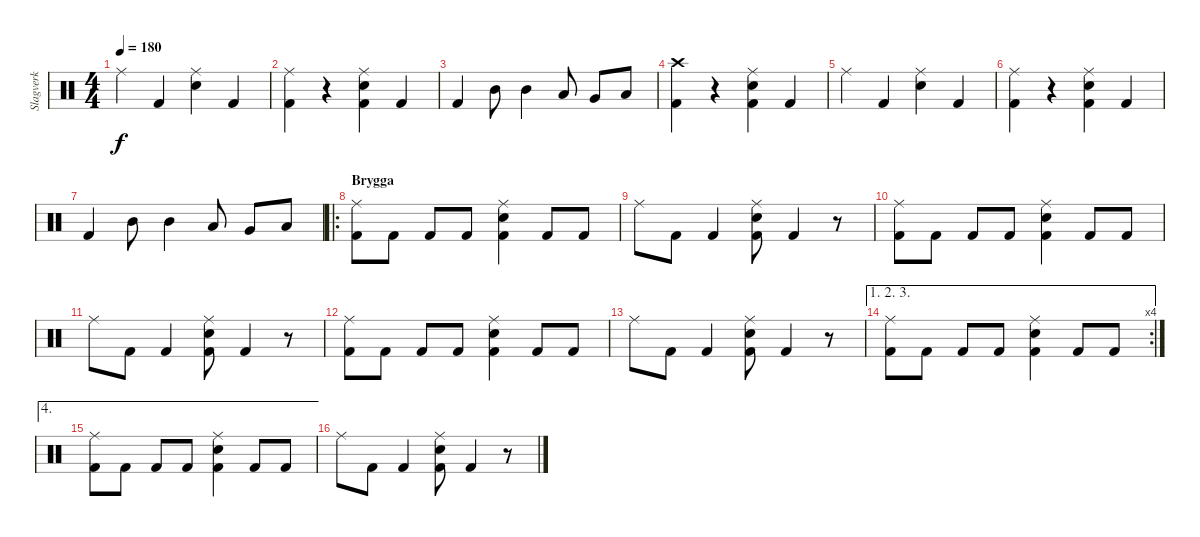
\track ("Slagverk" "Slagverk") {instrument percussion}
\staff {score}
\articulation defaults
\ts (4 4)
\tempo 180
\clef neutral
\ks c "Ride (middle)".4{dy f} "Kick (hit) 2".4
("Snare (hit) 2" "Ride (middle)").4 "Kick (hit) 2".4 |
("Kick (hit) 2" "Ride (middle)").4 r.4 ("Kick (hit) 2" "Snare (hit) 2" "Ride (middle)").4 "Kick (hit) 2".4 |
"Kick (hit) 2".4 "Mid Tom (hit)".8 "Mid Tom (hit)".4 "Low Tom (hit)".8 "Very Low Tom (hit)".8 "Low Floor Tom (hit)".8 |
("Kick (hit) 2" "Crash high (hit)").4 r.4 ("Kick (hit) 2" "Snare (hit) 2" "Ride (middle)").4 "Kick (hit) 2".4 |
"Ride (middle)".4 "Kick (hit) 2".4 ("Snare (hit) 2" "Ride (middle)").4 "Kick (hit) 2".4 |
("Kick (hit) 2" "Ride (middle)").4 r.4 ("Kick (hit) 2" "Snare (hit) 2" "Ride (middle)").4 "Kick (hit) 2".4 |
"Kick (hit) 2".4 "Mid Tom (hit)".8 "Mid Tom (hit)".4 "Low Tom (hit)".8 "Very Low Tom (hit)".8 "Low Floor Tom (hit)".8 |
\ro
\section ("" "Brygga")
("Kick (hit) 2" "Ride (middle)").8 "Kick (hit) 2".8 "Kick (hit) 2".8 "Kick (hit) 2".8 ("Kick (hit) 2" "Snare (hit) 2" "Ride (middle)").4 "Kick (hit) 2".8 "Kick (hit) 2".8 |
"Ride (middle)".8 "Kick (hit) 2".8 "Kick (hit) 2".4 ("Kick (hit) 2" "Snare (hit) 2" "Ride (middle)").8 "Kick (hit) 2".4 r.8 |
("Kick (hit) 2" "Ride (middle)").8 "Kick (hit) 2".8 "Kick (hit) 2".8 "Kick (hit) 2".8 ("Kick (hit) 2" "Snare (hit) 2" "Ride (middle)").4 "Kick (hit) 2".8 "Kick (hit) 2".8 |
"Ride (middle)".8 "Kick (hit) 2".8 "Kick (hit) 2".4 ("Kick (hit) 2" "Snare (hit) 2" "Ride (middle)").8 "Kick (hit) 2".4 r.8 |
("Kick (hit) 2" "Ride (middle)").8 "Kick (hit) 2".8 "Kick (hit) 2".8 "Kick (hit) 2".8 ("Kick (hit) 2" "Snare (hit) 2" "Ride (middle)").4 "Kick (hit) 2".8 "Kick (hit) 2".8 |
"Ride (middle)".8 "Kick (hit) 2".8 "Kick (hit) 2".4 ("Kick (hit) 2" "Snare (hit) 2" "Ride (middle)").8 "Kick (hit) 2".4 r.8 |
\ae (1 2 3)
\rc 4
("Kick (hit) 2" "Ride (middle)").8 "Kick (hit) 2".8 "Kick (hit) 2".8 "Kick (hit) 2".8 ("Kick (hit) 2" "Snare (hit) 2" "Ride (middle)").4 "Kick (hit) 2".8 "Kick (hit) 2".8 |
\ae 4
("Kick (hit) 2" "Ride (middle)").8 "Kick (hit) 2".8 "Kick (hit) 2".8 "Kick (hit) 2".8 ("Kick (hit) 2" "Snare (hit) 2" "Ride (middle)").4 "Kick (hit) 2".8 "Kick (hit) 2".8 |
"Ride (middle)".8 "Kick (hit) 2".8 "Kick (hit) 2".4 ("Kick (hit) 2" "Snare (hit) 2" "Ride (middle)").8 "Kick (hit) 2".4 r.8
